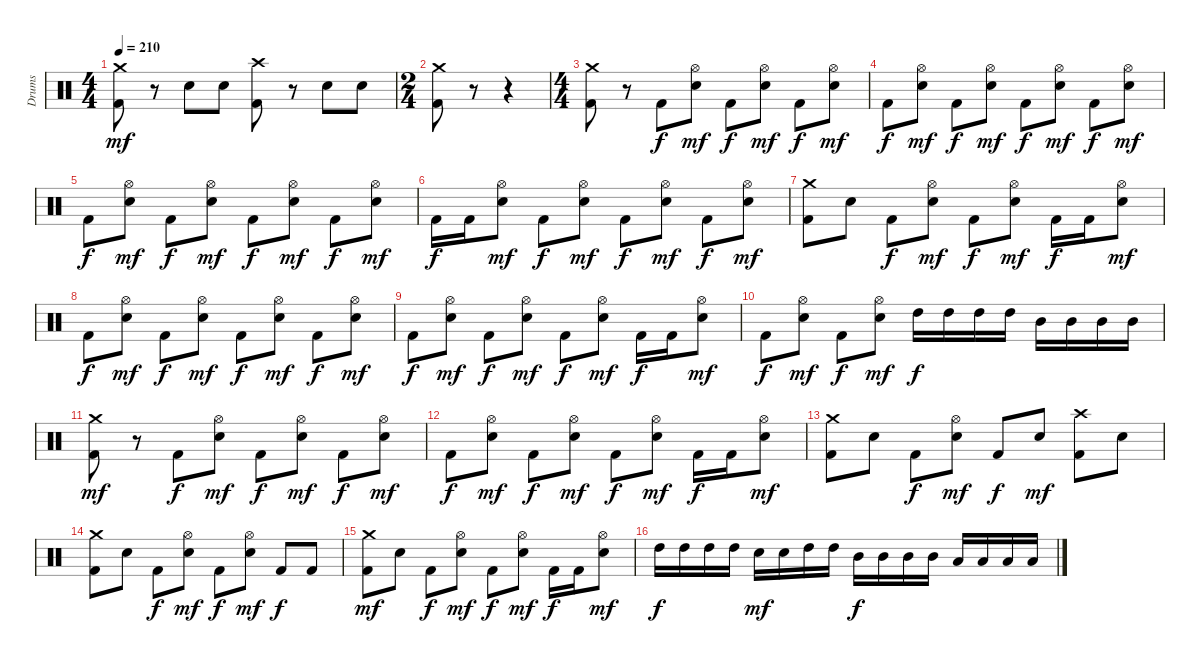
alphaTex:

\track ("Drums" "Drums") {instrument percussion}
\staff {score}
\articulation defaults
\ts (4 4)
\tempo 210
\clef neutral
\ks c
("Crash medium (hit)" "Kick (hit) 2").8{dy mf} r.8 "Electric Snare (hit)".8 "Electric Snare (hit)".8 ("Crash high (hit)" "Kick (hit) 2").8 r.8 "Electric Snare (hit)".8 "Electric Snare (hit)".8 |
\ts (2 4)
("Crash medium (hit)" "Kick (hit) 2").8 r.8 r.4 |
\ts (4 4)
("Crash medium (hit)" "Kick (hit) 2").8 r.8 "Kick (hit) 2".8{dy f} ("Hi-Hat (open)" "Electric Snare (hit)").8{dy mf} "Kick (hit) 2".8{dy f} ("Hi-Hat (open)" "Electric Snare (hit)").8{dy mf} "Kick (hit) 2".8{dy f} ("Hi-Hat (open)" "Electric Snare (hit)").8{dy mf} |
"Kick (hit) 2".8{dy f} ("Hi-Hat (open)" "Electric Snare (hit)").8{dy mf} "Kick (hit) 2".8{dy f} ("Hi-Hat (open)" "Electric Snare (hit)").8{dy mf} "Kick (hit) 2".8{dy f} ("Hi-Hat (open)" "Electric Snare (hit)").8{dy mf} "Kick (hit) 2".8{dy f} ("Hi-Hat (open)" "Electric Snare (hit)").8{dy mf} |
"Kick (hit) 2".8{dy f} ("Hi-Hat (open)" "Electric Snare (hit)").8{dy mf} "Kick (hit) 2".8{dy f} ("Hi-Hat (open)" "Electric Snare (hit)").8{dy mf} "Kick (hit) 2".8{dy f} ("Hi-Hat (open)" "Electric Snare (hit)").8{dy mf} "Kick (hit) 2".8{dy f} ("Hi-Hat (open)" "Electric Snare (hit)").8{dy mf} |
"Kick (hit) 2".16{dy f} "Kick (hit) 2".16 ("Hi-Hat (open)" "Electric Snare (hit)").8{dy mf} "Kick (hit) 2".8{dy f} ("Hi-Hat (open)" "Electric Snare (hit)").8{dy mf} "Kick (hit) 2".8{dy f} ("Hi-Hat (open)" "Electric Snare (hit)").8{dy mf} "Kick (hit) 2".8{dy f} ("Hi-Hat (open)" "Electric Snare (hit)").8{dy mf} |
("Crash medium (hit)" "Kick (hit) 2").8 "Electric Snare (hit)".8 "Kick (hit) 2".8{dy f} ("Hi-Hat (open)" "Electric Snare (hit)").8{dy mf} "Kick (hit) 2".8{dy f} ("Hi-Hat (open)" "Electric Snare (hit)").8{dy mf} "Kick (hit) 2".16{dy f} "Kick (hit) 2".16 ("Hi-Hat (open)" "Electric Snare (hit)").8{dy mf} |
"Kick (hit) 2".8{dy f} ("Hi-Hat (open)" "Electric Snare (hit)").8{dy mf} "Kick (hit) 2".8{dy f} ("Hi-Hat (open)" "Electric Snare (hit)").8{dy mf} "Kick (hit) 2".8{dy f} ("Hi-Hat (open)" "Electric Snare (hit)").8{dy mf} "Kick (hit) 2".8{dy f} ("Hi-Hat (open)" "Electric Snare (hit)").8{dy mf} |
"Kick (hit) 2".8{dy f} ("Hi-Hat (open)" "Electric Snare (hit)").8{dy mf} "Kick (hit) 2".8{dy f} ("Hi-Hat (open)" "Electric Snare (hit)").8{dy mf} "Kick (hit) 2".8{dy f} ("Hi-Hat (open)" "Electric Snare (hit)").8{dy mf} "Kick (hit) 2".16{dy f} "Kick (hit) 2".16 ("Hi-Hat (open)" "Electric Snare (hit)").8{dy mf} |
"Kick (hit) 2".8{dy f} ("Hi-Hat (open)" "Electric Snare (hit)").8{dy mf} "Kick (hit) 2".8{dy f} ("Hi-Hat (open)" "Electric Snare (hit)").8{dy mf} "High Tom (hit)".16{dy f} "High Tom (hit)".16 "High Tom (hit)".16 "High Tom (hit)".16 "Mid Tom (hit)".16 "Mid Tom (hit)".16 "Mid Tom (hit)".16 "Mid Tom (hit)".16 |
("Crash medium (hit)" "Kick (hit) 2").8{dy mf} r.8 "Kick (hit) 2".8{dy f} ("Hi-Hat (open)" "Electric Snare (hit)").8{dy mf} "Kick (hit) 2".8{dy f} ("Hi-Hat (open)" "Electric Snare (hit)").8{dy mf} "Kick (hit) 2".8{dy f} ("Hi-Hat (open)" "Electric Snare (hit)").8{dy mf} |
"Kick (hit) 2".8{dy f} ("Hi-Hat (open)" "Electric Snare (hit)").8{dy mf} "Kick (hit) 2".8{dy f} ("Hi-Hat (open)" "Electric Snare (hit)").8{dy mf} "Kick (hit) 2".8{dy f} ("Hi-Hat (open)" "Electric Snare (hit)").8{dy mf} "Kick (hit) 2".16{dy f} "Kick (hit) 2".16 ("Hi-Hat (open)" "Electric Snare (hit)").8{dy mf} |
("Crash medium (hit)" "Kick (hit) 2").8 "Electric Snare (hit)".8 "Kick (hit) 2".8{dy f} ("Hi-Hat (open)" "Electric Snare (hit)").8{dy mf} "Kick (hit) 2".8{dy f} "Electric Snare (hit)".8{dy mf} ("Crash high (hit)" "Kick (hit) 2").8 "Electric Snare (hit)".8 |
("Crash medium (hit)" "Kick (hit) 2").8 "Electric Snare (hit)".8 "Kick (hit) 2".8{dy f} ("Hi-Hat (open)" "Electric Snare (hit)").8{dy mf} "Kick (hit) 2".8{dy f} ("Hi-Hat (open)" "Electric Snare (hit)").8{dy mf} "Kick (hit) 2".8{dy f} "Kick (hit) 2".8 |
("Crash medium (hit)" "Kick (hit) 2").8{dy mf} "Electric Snare (hit)".8 "Kick (hit) 2".8{dy f} ("Hi-Hat (open)" "Electric Snare (hit)").8{dy mf} "Kick (hit) 2".8{dy f} ("Hi-Hat (open)" "Electric Snare (hit)").8{dy mf} "Kick (hit) 2".16{dy f} "Kick (hit) 2".16 ("Hi-Hat (open)" "Electric Snare (hit)").8{dy mf} |
"High Tom (hit)".16{dy f} "High Tom (hit)".16 "High Tom (hit)".16 "High Tom (hit)".16 "Electric Snare (hit)".16{dy mf} "Electric Snare (hit)".16 "High Tom (hit)".16 "High Tom (hit)".16 "Mid Tom (hit)".16{dy f} "Mid Tom (hit)".16 "Mid Tom (hit)".16 "Mid Tom (hit)".16 "Low Tom (hit)".16 "Low Tom (hit)".16 "Low Tom (hit)".16 "Low Tom (hit)".16
